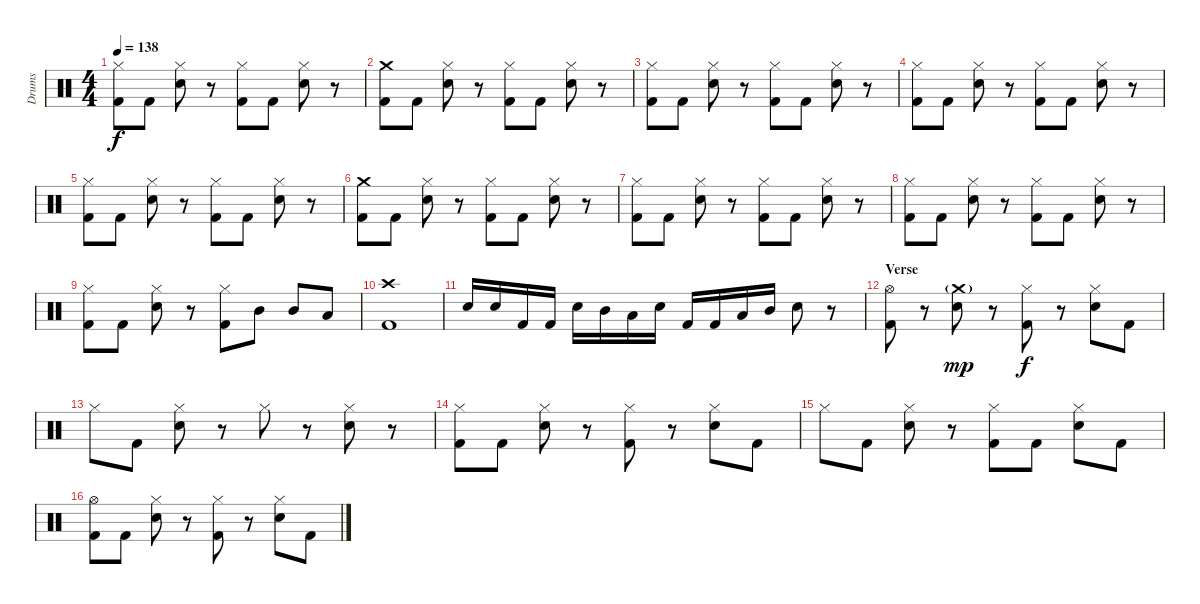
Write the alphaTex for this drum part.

\track ("Drums" "Drums") {instrument percussion}
\staff {score}
\articulation defaults
\ts (4 4)
\tempo 138
\clef neutral
\ks c
("Hi-Hat (closed)" "Kick (hit) 2").8{dy f} "Kick (hit) 2".8 ("Hi-Hat (closed)" "Electric Snare (hit)").8 r.8 ("Hi-Hat (closed)" "Kick (hit) 2").8 "Kick (hit) 2".8 ("Hi-Hat (closed)" "Electric Snare (hit)").8 r.8 |
("Crash medium (hit)" "Kick (hit) 2").8 "Kick (hit) 2".8 ("Hi-Hat (closed)" "Electric Snare (hit)").8 r.8 ("Hi-Hat (closed)" "Kick (hit) 2").8 "Kick (hit) 2".8 ("Hi-Hat (closed)" "Electric Snare (hit)").8 r.8 |
("Hi-Hat (closed)" "Kick (hit) 2").8 "Kick (hit) 2".8 ("Hi-Hat (closed)" "Electric Snare (hit)").8 r.8 ("Hi-Hat (closed)" "Kick (hit) 2").8 "Kick (hit) 2".8 ("Hi-Hat (closed)" "Electric Snare (hit)").8 r.8 |
("Hi-Hat (closed)" "Kick (hit) 2").8 "Kick (hit) 2".8 ("Hi-Hat (closed)" "Electric Snare (hit)").8 r.8 ("Hi-Hat (closed)" "Kick (hit) 2").8 "Kick (hit) 2".8 ("Hi-Hat (closed)" "Electric Snare (hit)").8 r.8 |
("Hi-Hat (closed)" "Kick (hit) 2").8 "Kick (hit) 2".8 ("Hi-Hat (closed)" "Electric Snare (hit)").8 r.8 ("Hi-Hat (closed)" "Kick (hit) 2").8 "Kick (hit) 2".8 ("Hi-Hat (closed)" "Electric Snare (hit)").8 r.8 |
("Crash medium (hit)" "Kick (hit) 2").8 "Kick (hit) 2".8 ("Hi-Hat (closed)" "Electric Snare (hit)").8 r.8 ("Hi-Hat (closed)" "Kick (hit) 2").8 "Kick (hit) 2".8 ("Hi-Hat (closed)" "Electric Snare (hit)").8 r.8 |
("Hi-Hat (closed)" "Kick (hit) 2").8 "Kick (hit) 2".8 ("Hi-Hat (closed)" "Electric Snare (hit)").8 r.8 ("Hi-Hat (closed)" "Kick (hit) 2").8 "Kick (hit) 2".8 ("Hi-Hat (closed)" "Electric Snare (hit)").8 r.8 |
("Hi-Hat (closed)" "Kick (hit) 2").8 "Kick (hit) 2".8 ("Hi-Hat (closed)" "Electric Snare (hit)").8 r.8 ("Hi-Hat (closed)" "Kick (hit) 2").8 "Kick (hit) 2".8 ("Hi-Hat (closed)" "Electric Snare (hit)").8 r.8 |
("Hi-Hat (closed)" "Kick (hit) 2").8 "Kick (hit) 2".8 ("Hi-Hat (closed)" "Electric Snare (hit)").8 r.8 ("Hi-Hat (closed)" "Kick (hit) 2").8 "Mid Tom (hit)".8 "Mid Tom (hit)".8 "Low Tom (hit)".8 |
("Crash high (hit)" "Kick (hit) 2").1 |
"Electric Snare (hit)".16 "Electric Snare (hit)".16 "Kick (hit) 2".16 "Kick (hit) 2".16 "Electric Snare (hit)".16 "Mid Tom (hit)".16 "Low Tom (hit)".16 "Electric Snare (hit)".16 "Kick (hit) 2".16 "Kick (hit) 2".16 "Low Tom (hit)".16 "Mid Tom (hit)".16 "Electric Snare (hit)".8 r.8 |
\section ("" "Verse")
("Hi-Hat (open)" "Kick (hit) 2").8 r.8 ("Crash medium (hit)"{g} "Electric Snare (hit)").8{dy mp} r.8 ("Hi-Hat (closed)" "Kick (hit) 2").8{dy f} r.8 ("Hi-Hat (closed)" "Electric Snare (hit)").8 "Kick (hit) 2".8 |
"Hi-Hat (closed)".8 "Kick (hit) 2".8 ("Hi-Hat (closed)" "Electric Snare (hit)").8 r.8 "Hi-Hat (closed)".8 r.8 ("Hi-Hat (closed)" "Electric Snare (hit)").8 r.8 |
("Hi-Hat (closed)" "Kick (hit) 2").8 "Kick (hit) 2".8 ("Hi-Hat (closed)" "Electric Snare (hit)").8 r.8 ("Hi-Hat (closed)" "Kick (hit) 2").8 r.8 ("Hi-Hat (closed)" "Electric Snare (hit)").8 "Kick (hit) 2".8 |
"Hi-Hat (closed)".8 "Kick (hit) 2".8 ("Hi-Hat (closed)" "Electric Snare (hit)").8 r.8 ("Hi-Hat (closed)" "Kick (hit) 2").8 "Kick (hit) 2".8 ("Hi-Hat (closed)" "Electric Snare (hit)").8 "Kick (hit) 2".8 |
("Hi-Hat (open)" "Kick (hit) 2").8 "Kick (hit) 2".8 ("Hi-Hat (closed)" "Electric Snare (hit)").8 r.8 ("Hi-Hat (closed)" "Kick (hit) 2").8 r.8 ("Hi-Hat (closed)" "Electric Snare (hit)").8 "Kick (hit) 2".8
